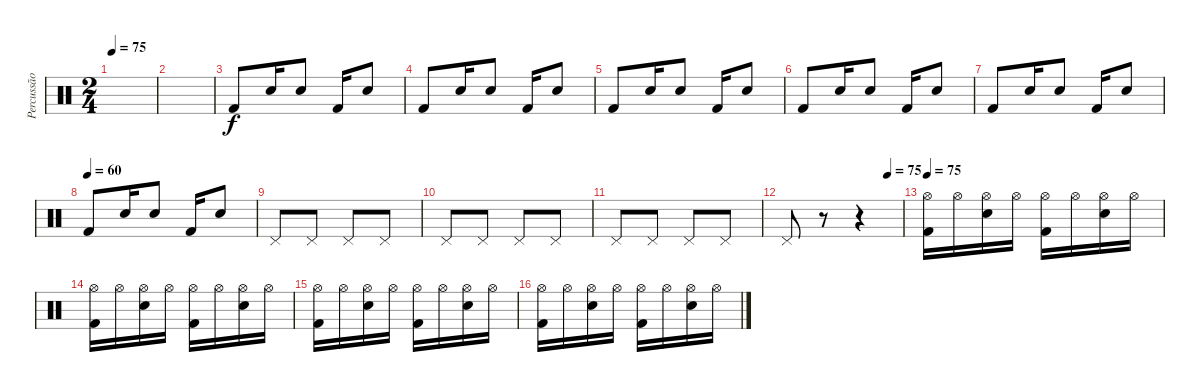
\track ("Percussão" "Percussão") {instrument percussion}
\staff {score}
\articulation defaults
\ts (2 4)
\tempo 75
\tempo 60
\tempo 75
\clef neutral
\ks c
|
|
"Kick (hit) 2".8 "Snare (hit) 2".16 "Snare (hit) 2".8 "Kick (hit) 2".16 "Snare (hit) 2".8 |
"Kick (hit) 2".8 "Snare (hit) 2".16 "Snare (hit) 2".8 "Kick (hit) 2".16 "Snare (hit) 2".8 |
"Kick (hit) 2".8 "Snare (hit) 2".16 "Snare (hit) 2".8 "Kick (hit) 2".16 "Snare (hit) 2".8 |
"Kick (hit) 2".8 "Snare (hit) 2".16 "Snare (hit) 2".8 "Kick (hit) 2".16 "Snare (hit) 2".8 |
"Kick (hit) 2".8 "Snare (hit) 2".16 "Snare (hit) 2".8 "Kick (hit) 2".16 "Snare (hit) 2".8 |
\tempo (60)
"Kick (hit) 2".8 "Snare (hit) 2".16 "Snare (hit) 2".8 "Kick (hit) 2".16 "Snare (hit) 2".8 |
"Pedal Hi-Hat (hit)".8 "Pedal Hi-Hat (hit)".8 "Pedal Hi-Hat (hit)".8 "Pedal Hi-Hat (hit)".8 |
"Pedal Hi-Hat (hit)".8 "Pedal Hi-Hat (hit)".8 "Pedal Hi-Hat (hit)".8 "Pedal Hi-Hat (hit)".8 |
"Pedal Hi-Hat (hit)".8 "Pedal Hi-Hat (hit)".8 "Pedal Hi-Hat (hit)".8 "Pedal Hi-Hat (hit)".8 |
\tempo (75 0.875)
"Pedal Hi-Hat (hit)".8 r.8 r.4 |
\tempo 75
("Hi-Hat (open)" "Kick (hit) 2").16 "Hi-Hat (open)".16 ("Hi-Hat (open)" "Snare (hit) 2").16 "Hi-Hat (open)".16 ("Hi-Hat (open)" "Kick (hit) 2").16 "Hi-Hat (open)".16 ("Hi-Hat (open)" "Snare (hit) 2").16 "Hi-Hat (open)".16 |
("Hi-Hat (open)" "Kick (hit) 2").16 "Hi-Hat (open)".16 ("Hi-Hat (open)" "Snare (hit) 2").16 "Hi-Hat (open)".16 ("Hi-Hat (open)" "Kick (hit) 2").16 "Hi-Hat (open)".16 ("Hi-Hat (open)" "Snare (hit) 2").16 "Hi-Hat (open)".16 |
("Hi-Hat (open)" "Kick (hit) 2").16 "Hi-Hat (open)".16 ("Hi-Hat (open)" "Snare (hit) 2").16 "Hi-Hat (open)".16 ("Hi-Hat (open)" "Kick (hit) 2").16 "Hi-Hat (open)".16 ("Hi-Hat (open)" "Snare (hit) 2").16 "Hi-Hat (open)".16 |
("Hi-Hat (open)" "Kick (hit) 2").16 "Hi-Hat (open)".16 ("Hi-Hat (open)" "Snare (hit) 2").16 "Hi-Hat (open)".16 ("Hi-Hat (open)" "Kick (hit) 2").16 "Hi-Hat (open)".16 ("Hi-Hat (open)" "Snare (hit) 2").16 "Hi-Hat (open)".16
